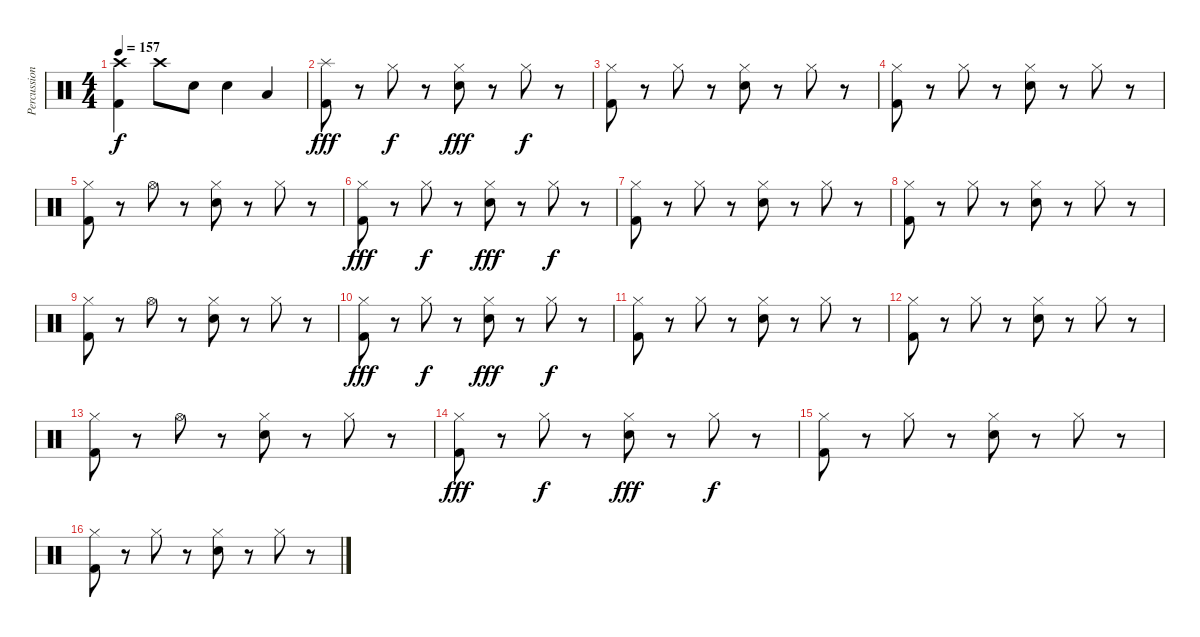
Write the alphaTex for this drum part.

\track ("Percussion" "Percussion") {instrument percussion}
\staff {score}
\articulation defaults
\ts (4 4)
\tempo 157
\clef neutral
\ks c
("Crash high (hit)" "Kick (hit) 2").4{dy f} "Crash high (hit)".8 "Snare (hit) 2".8 "Snare (hit) 2".4 "Low Tom (hit)".4 |
("Splash (hit)" "Kick (hit) 2").8{dy fff} r.8 "Hi-Hat (closed)".8{dy f} r.8 ("Hi-Hat (closed)" "Snare (hit) 2").8{dy fff} r.8 "Hi-Hat (closed)".8{dy f} r.8 |
("Hi-Hat (closed)" "Kick (hit) 2").8 r.8 "Hi-Hat (closed)".8 r.8 ("Hi-Hat (closed)" "Snare (hit) 2").8 r.8 "Hi-Hat (closed)".8 r.8 |
("Hi-Hat (closed)" "Kick (hit) 2").8 r.8 "Hi-Hat (closed)".8 r.8 ("Hi-Hat (closed)" "Snare (hit) 2").8 r.8 "Hi-Hat (closed)".8 r.8 |
("Hi-Hat (closed)" "Kick (hit) 2").8 r.8 "Hi-Hat (open)".8 r.8 ("Hi-Hat (closed)" "Snare (hit) 2").8 r.8 "Hi-Hat (closed)".8 r.8 |
("Hi-Hat (closed)" "Kick (hit) 2").8{dy fff} r.8 "Hi-Hat (closed)".8{dy f} r.8 ("Hi-Hat (closed)" "Snare (hit) 2").8{dy fff} r.8 "Hi-Hat (closed)".8{dy f} r.8 |
("Hi-Hat (closed)" "Kick (hit) 2").8 r.8 "Hi-Hat (closed)".8 r.8 ("Hi-Hat (closed)" "Snare (hit) 2").8 r.8 "Hi-Hat (closed)".8 r.8 |
("Hi-Hat (closed)" "Kick (hit) 2").8 r.8 "Hi-Hat (closed)".8 r.8 ("Hi-Hat (closed)" "Snare (hit) 2").8 r.8 "Hi-Hat (closed)".8 r.8 |
("Hi-Hat (closed)" "Kick (hit) 2").8 r.8 "Hi-Hat (open)".8 r.8 ("Hi-Hat (closed)" "Snare (hit) 2").8 r.8 "Hi-Hat (closed)".8 r.8 |
("Hi-Hat (closed)" "Kick (hit) 2").8{dy fff} r.8 "Hi-Hat (closed)".8{dy f} r.8 ("Hi-Hat (closed)" "Snare (hit) 2").8{dy fff} r.8 "Hi-Hat (closed)".8{dy f} r.8 |
("Hi-Hat (closed)" "Kick (hit) 2").8 r.8 "Hi-Hat (closed)".8 r.8 ("Hi-Hat (closed)" "Snare (hit) 2").8 r.8 "Hi-Hat (closed)".8 r.8 |
("Hi-Hat (closed)" "Kick (hit) 2").8 r.8 "Hi-Hat (closed)".8 r.8 ("Hi-Hat (closed)" "Snare (hit) 2").8 r.8 "Hi-Hat (closed)".8 r.8 |
("Hi-Hat (closed)" "Kick (hit) 2").8 r.8 "Hi-Hat (open)".8 r.8 ("Hi-Hat (closed)" "Snare (hit) 2").8 r.8 "Hi-Hat (closed)".8 r.8 |
("Hi-Hat (closed)" "Kick (hit) 2").8{dy fff} r.8 "Hi-Hat (closed)".8{dy f} r.8 ("Hi-Hat (closed)" "Snare (hit) 2").8{dy fff} r.8 "Hi-Hat (closed)".8{dy f} r.8 |
("Hi-Hat (closed)" "Kick (hit) 2").8 r.8 "Hi-Hat (closed)".8 r.8 ("Hi-Hat (closed)" "Snare (hit) 2").8 r.8 "Hi-Hat (closed)".8 r.8 |
("Hi-Hat (closed)" "Kick (hit) 2").8 r.8 "Hi-Hat (closed)".8 r.8 ("Hi-Hat (closed)" "Snare (hit) 2").8 r.8 "Hi-Hat (closed)".8 r.8
